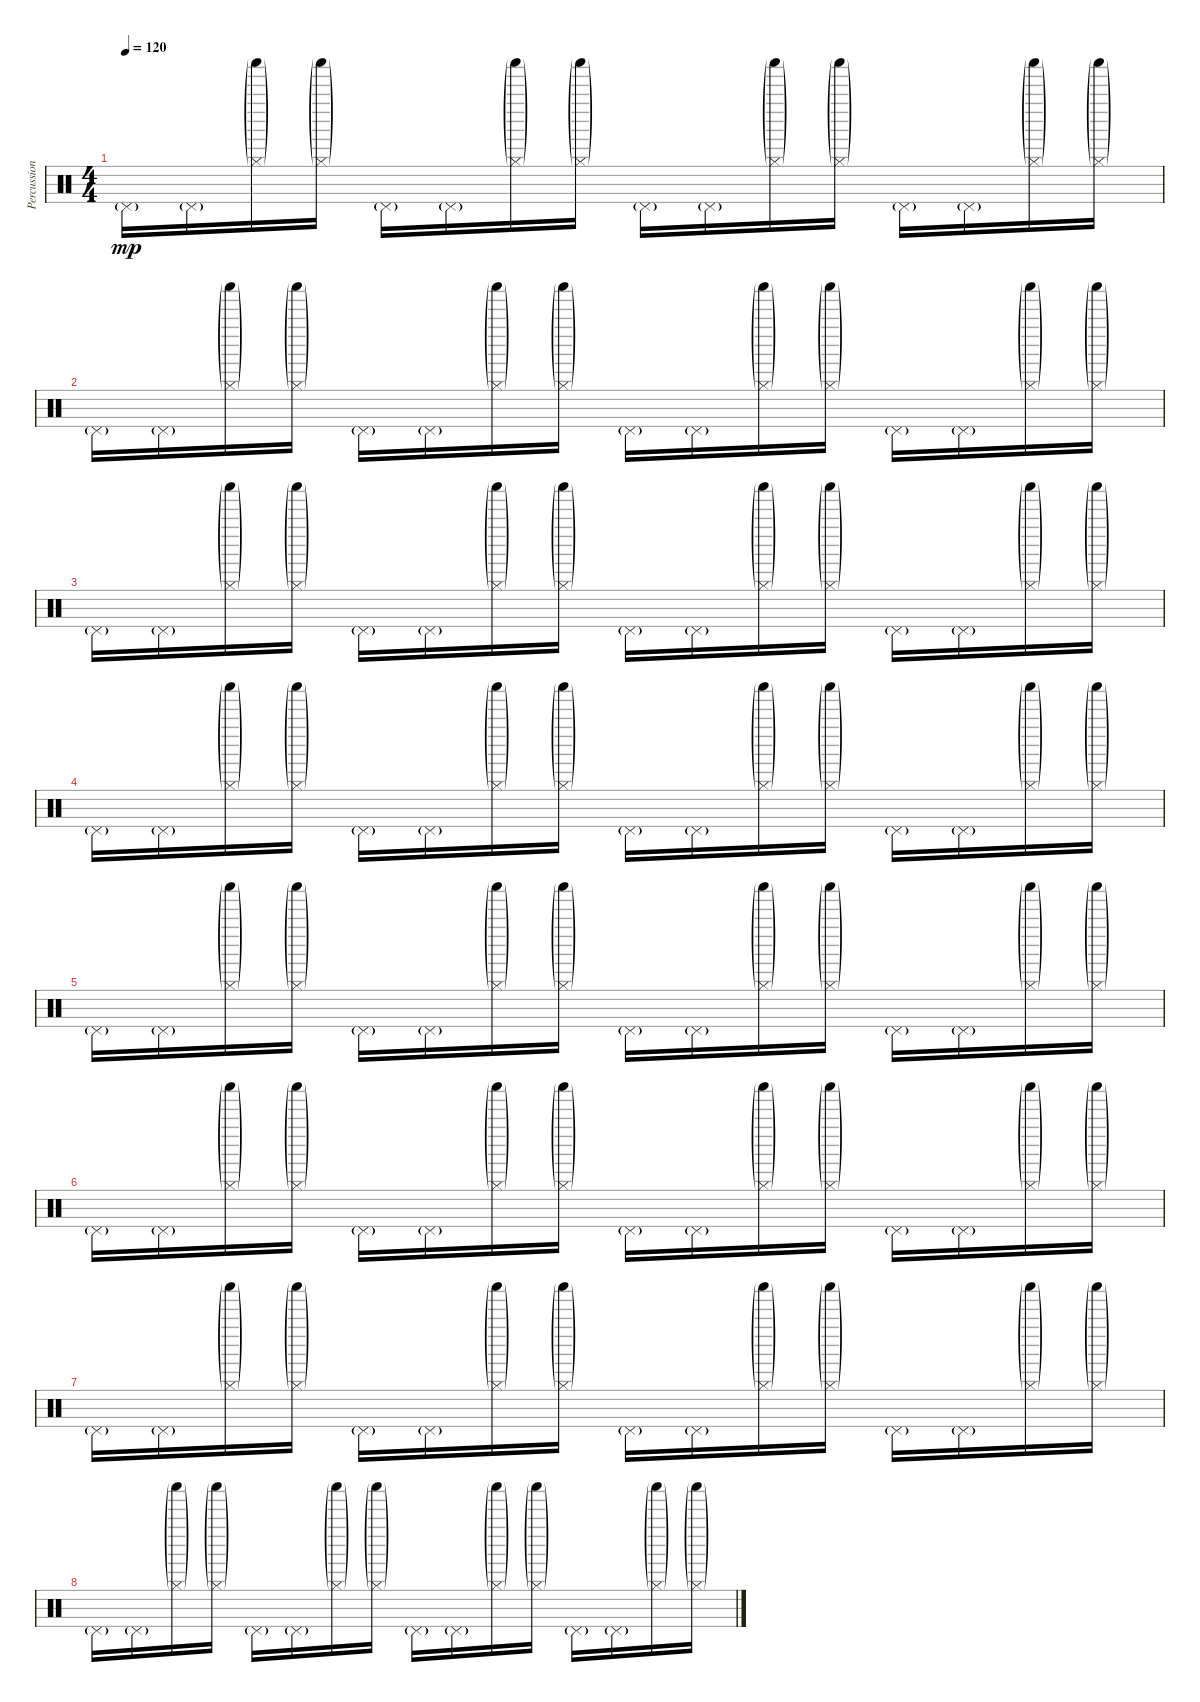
\track ("Percussion" "Percussion") {instrument percussion}
\staff {score}
\articulation defaults
\ts (4 4)
\tempo 120
\clef neutral
\ks c "Pedal Hi-Hat (hit)"{g}.16{dy mp} "Pedal Hi-Hat (hit)"{g}.16
("Hi-Hat (closed)"{g} "Shaker (hit)"{g}).16 ("Hi-Hat (closed)"{g} "Shaker (hit)"{g}).16 "Pedal Hi-Hat (hit)"{g}.16 "Pedal Hi-Hat (hit)"{g}.16 ("Hi-Hat (closed)"{g} "Shaker (hit)"{g}).16 ("Hi-Hat (closed)"{g} "Shaker (hit)"{g}).16 "Pedal Hi-Hat (hit)"{g}.16 "Pedal Hi-Hat (hit)"{g}.16 ("Hi-Hat (closed)"{g} "Shaker (hit)"{g}).16 ("Hi-Hat (closed)"{g} "Shaker (hit)"{g}).16 "Pedal Hi-Hat (hit)"{g}.16 "Pedal Hi-Hat (hit)"{g}.16 ("Hi-Hat (closed)"{g} "Shaker (hit)"{g}).16 ("Hi-Hat (closed)"{g} "Shaker (hit)"{g}).16 |
"Pedal Hi-Hat (hit)"{g}.16 "Pedal Hi-Hat (hit)"{g}.16 ("Hi-Hat (closed)"{g} "Shaker (hit)"{g}).16 ("Hi-Hat (closed)"{g} "Shaker (hit)"{g}).16 "Pedal Hi-Hat (hit)"{g}.16 "Pedal Hi-Hat (hit)"{g}.16 ("Hi-Hat (closed)"{g} "Shaker (hit)"{g}).16 ("Hi-Hat (closed)"{g} "Shaker (hit)"{g}).16 "Pedal Hi-Hat (hit)"{g}.16 "Pedal Hi-Hat (hit)"{g}.16 ("Hi-Hat (closed)"{g} "Shaker (hit)"{g}).16 ("Hi-Hat (closed)"{g} "Shaker (hit)"{g}).16 "Pedal Hi-Hat (hit)"{g}.16 "Pedal Hi-Hat (hit)"{g}.16 ("Hi-Hat (closed)"{g} "Shaker (hit)"{g}).16 ("Hi-Hat (closed)"{g} "Shaker (hit)"{g}).16 |
"Pedal Hi-Hat (hit)"{g}.16 "Pedal Hi-Hat (hit)"{g}.16 ("Hi-Hat (closed)"{g} "Shaker (hit)"{g}).16 ("Hi-Hat (closed)"{g} "Shaker (hit)"{g}).16 "Pedal Hi-Hat (hit)"{g}.16 "Pedal Hi-Hat (hit)"{g}.16 ("Hi-Hat (closed)"{g} "Shaker (hit)"{g}).16 ("Hi-Hat (closed)"{g} "Shaker (hit)"{g}).16 "Pedal Hi-Hat (hit)"{g}.16 "Pedal Hi-Hat (hit)"{g}.16 ("Hi-Hat (closed)"{g} "Shaker (hit)"{g}).16 ("Hi-Hat (closed)"{g} "Shaker (hit)"{g}).16 "Pedal Hi-Hat (hit)"{g}.16 "Pedal Hi-Hat (hit)"{g}.16 ("Hi-Hat (closed)"{g} "Shaker (hit)"{g}).16 ("Hi-Hat (closed)"{g} "Shaker (hit)"{g}).16 |
"Pedal Hi-Hat (hit)"{g}.16 "Pedal Hi-Hat (hit)"{g}.16 ("Hi-Hat (closed)"{g} "Shaker (hit)"{g}).16 ("Hi-Hat (closed)"{g} "Shaker (hit)"{g}).16 "Pedal Hi-Hat (hit)"{g}.16 "Pedal Hi-Hat (hit)"{g}.16 ("Hi-Hat (closed)"{g} "Shaker (hit)"{g}).16 ("Hi-Hat (closed)"{g} "Shaker (hit)"{g}).16 "Pedal Hi-Hat (hit)"{g}.16 "Pedal Hi-Hat (hit)"{g}.16 ("Hi-Hat (closed)"{g} "Shaker (hit)"{g}).16 ("Hi-Hat (closed)"{g} "Shaker (hit)"{g}).16 "Pedal Hi-Hat (hit)"{g}.16 "Pedal Hi-Hat (hit)"{g}.16 ("Hi-Hat (closed)"{g} "Shaker (hit)"{g}).16 ("Hi-Hat (closed)"{g} "Shaker (hit)"{g}).16 |
"Pedal Hi-Hat (hit)"{g}.16 "Pedal Hi-Hat (hit)"{g}.16 ("Hi-Hat (closed)"{g} "Shaker (hit)"{g}).16 ("Hi-Hat (closed)"{g} "Shaker (hit)"{g}).16 "Pedal Hi-Hat (hit)"{g}.16 "Pedal Hi-Hat (hit)"{g}.16 ("Hi-Hat (closed)"{g} "Shaker (hit)"{g}).16 ("Hi-Hat (closed)"{g} "Shaker (hit)"{g}).16 "Pedal Hi-Hat (hit)"{g}.16 "Pedal Hi-Hat (hit)"{g}.16 ("Hi-Hat (closed)"{g} "Shaker (hit)"{g}).16 ("Hi-Hat (closed)"{g} "Shaker (hit)"{g}).16 "Pedal Hi-Hat (hit)"{g}.16 "Pedal Hi-Hat (hit)"{g}.16 ("Hi-Hat (closed)"{g} "Shaker (hit)"{g}).16 ("Hi-Hat (closed)"{g} "Shaker (hit)"{g}).16 |
"Pedal Hi-Hat (hit)"{g}.16 "Pedal Hi-Hat (hit)"{g}.16 ("Hi-Hat (closed)"{g} "Shaker (hit)"{g}).16 ("Hi-Hat (closed)"{g} "Shaker (hit)"{g}).16 "Pedal Hi-Hat (hit)"{g}.16 "Pedal Hi-Hat (hit)"{g}.16 ("Hi-Hat (closed)"{g} "Shaker (hit)"{g}).16 ("Hi-Hat (closed)"{g} "Shaker (hit)"{g}).16 "Pedal Hi-Hat (hit)"{g}.16 "Pedal Hi-Hat (hit)"{g}.16 ("Hi-Hat (closed)"{g} "Shaker (hit)"{g}).16 ("Hi-Hat (closed)"{g} "Shaker (hit)"{g}).16 "Pedal Hi-Hat (hit)"{g}.16 "Pedal Hi-Hat (hit)"{g}.16 ("Hi-Hat (closed)"{g} "Shaker (hit)"{g}).16 ("Hi-Hat (closed)"{g} "Shaker (hit)"{g}).16 |
"Pedal Hi-Hat (hit)"{g}.16 "Pedal Hi-Hat (hit)"{g}.16 ("Hi-Hat (closed)"{g} "Shaker (hit)"{g}).16 ("Hi-Hat (closed)"{g} "Shaker (hit)"{g}).16 "Pedal Hi-Hat (hit)"{g}.16 "Pedal Hi-Hat (hit)"{g}.16 ("Hi-Hat (closed)"{g} "Shaker (hit)"{g}).16 ("Hi-Hat (closed)"{g} "Shaker (hit)"{g}).16 "Pedal Hi-Hat (hit)"{g}.16 "Pedal Hi-Hat (hit)"{g}.16 ("Hi-Hat (closed)"{g} "Shaker (hit)"{g}).16 ("Hi-Hat (closed)"{g} "Shaker (hit)"{g}).16 "Pedal Hi-Hat (hit)"{g}.16 "Pedal Hi-Hat (hit)"{g}.16 ("Hi-Hat (closed)"{g} "Shaker (hit)"{g}).16 ("Hi-Hat (closed)"{g} "Shaker (hit)"{g}).16 |
"Pedal Hi-Hat (hit)"{g}.16 "Pedal Hi-Hat (hit)"{g}.16 ("Hi-Hat (closed)"{g} "Shaker (hit)"{g}).16 ("Hi-Hat (closed)"{g} "Shaker (hit)"{g}).16 "Pedal Hi-Hat (hit)"{g}.16 "Pedal Hi-Hat (hit)"{g}.16 ("Hi-Hat (closed)"{g} "Shaker (hit)"{g}).16 ("Hi-Hat (closed)"{g} "Shaker (hit)"{g}).16 "Pedal Hi-Hat (hit)"{g}.16 "Pedal Hi-Hat (hit)"{g}.16 ("Hi-Hat (closed)"{g} "Shaker (hit)"{g}).16 ("Hi-Hat (closed)"{g} "Shaker (hit)"{g}).16 "Pedal Hi-Hat (hit)"{g}.16 "Pedal Hi-Hat (hit)"{g}.16 ("Hi-Hat (closed)"{g} "Shaker (hit)"{g}).16 ("Hi-Hat (closed)"{g} "Shaker (hit)"{g}).16
